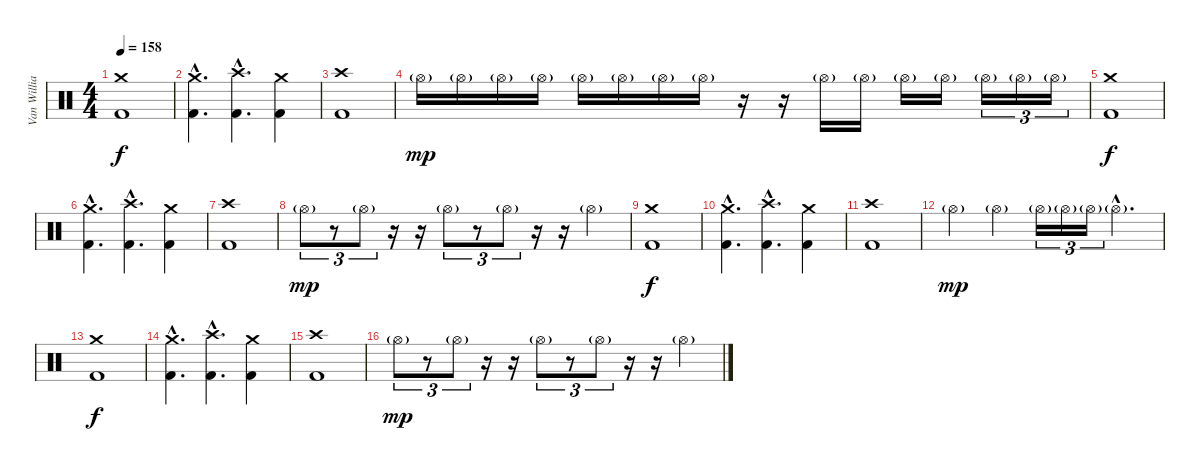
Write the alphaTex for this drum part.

\track ("Van Williams" "Van Willia") {instrument percussion}
\staff {score}
\articulation defaults
\ts (4 4)
\tempo 158
\clef neutral
\ks c
("Crash medium (hit)" "Kick (hit) 2").1{dy f} |
("Crash medium (hit)"{hac} "Kick (hit) 2"{hac}).4{d} ("Crash high (hit)"{hac} "Kick (hit) 2"{hac}).4{d} ("Crash medium (hit)" "Kick (hit) 2").4 |
("Crash high (hit)" "Kick (hit) 2").1 |
"Hi-Hat (open)"{g}.16{dy mp} "Hi-Hat (open)"{g}.16 "Hi-Hat (open)"{g}.16 "Hi-Hat (open)"{g}.16 "Hi-Hat (open)"{g}.16 "Hi-Hat (open)"{g}.16 "Hi-Hat (open)"{g}.16 "Hi-Hat (open)"{g}.16 r.16 r.16 "Hi-Hat (open)"{g}.16 "Hi-Hat (open)"{g}.16 "Hi-Hat (open)"{g}.16 "Hi-Hat (open)"{g}.16 "Hi-Hat (open)"{g}.16{tu (3 2)} "Hi-Hat (open)"{g}.16{tu (3 2)} "Hi-Hat (open)"{g}.16{tu (3 2)} |
("Crash medium (hit)" "Kick (hit) 2").1{dy f} |
("Crash medium (hit)"{hac} "Kick (hit) 2"{hac}).4{d} ("Crash high (hit)"{hac} "Kick (hit) 2"{hac}).4{d} ("Crash medium (hit)" "Kick (hit) 2").4 |
("Crash high (hit)" "Kick (hit) 2").1 |
"Hi-Hat (open)"{g}.8{tu (3 2) dy mp} r.8{tu (3 2)} "Hi-Hat (open)"{g}.8{tu (3 2)} r.16 r.16 "Hi-Hat (open)"{g}.8{tu (3 2)} r.8{tu (3 2)} "Hi-Hat (open)"{g}.8{tu (3 2)} r.16 r.16 "Hi-Hat (open)"{g}.4 |
("Crash medium (hit)" "Kick (hit) 2").1{dy f} |
("Crash medium (hit)"{hac} "Kick (hit) 2"{hac}).4{d} ("Crash high (hit)"{hac} "Kick (hit) 2"{hac}).4{d} ("Crash medium (hit)" "Kick (hit) 2").4 |
("Crash high (hit)" "Kick (hit) 2").1 |
"Hi-Hat (open)"{g}.4{dy mp} "Hi-Hat (open)"{g}.4 "Hi-Hat (open)"{g}.16{tu (3 2)} "Hi-Hat (open)"{g}.16{tu (3 2)} "Hi-Hat (open)"{g}.16{tu (3 2)} "Hi-Hat (open)"{g hac}.4{d} |
("Crash medium (hit)" "Kick (hit) 2").1{dy f} |
("Crash medium (hit)"{hac} "Kick (hit) 2"{hac}).4{d} ("Crash high (hit)"{hac} "Kick (hit) 2"{hac}).4{d} ("Crash medium (hit)" "Kick (hit) 2").4 |
("Crash high (hit)" "Kick (hit) 2").1 |
"Hi-Hat (open)"{g}.8{tu (3 2) dy mp} r.8{tu (3 2)} "Hi-Hat (open)"{g}.8{tu (3 2)} r.16 r.16 "Hi-Hat (open)"{g}.8{tu (3 2)} r.8{tu (3 2)} "Hi-Hat (open)"{g}.8{tu (3 2)} r.16 r.16 "Hi-Hat (open)"{g}.4
